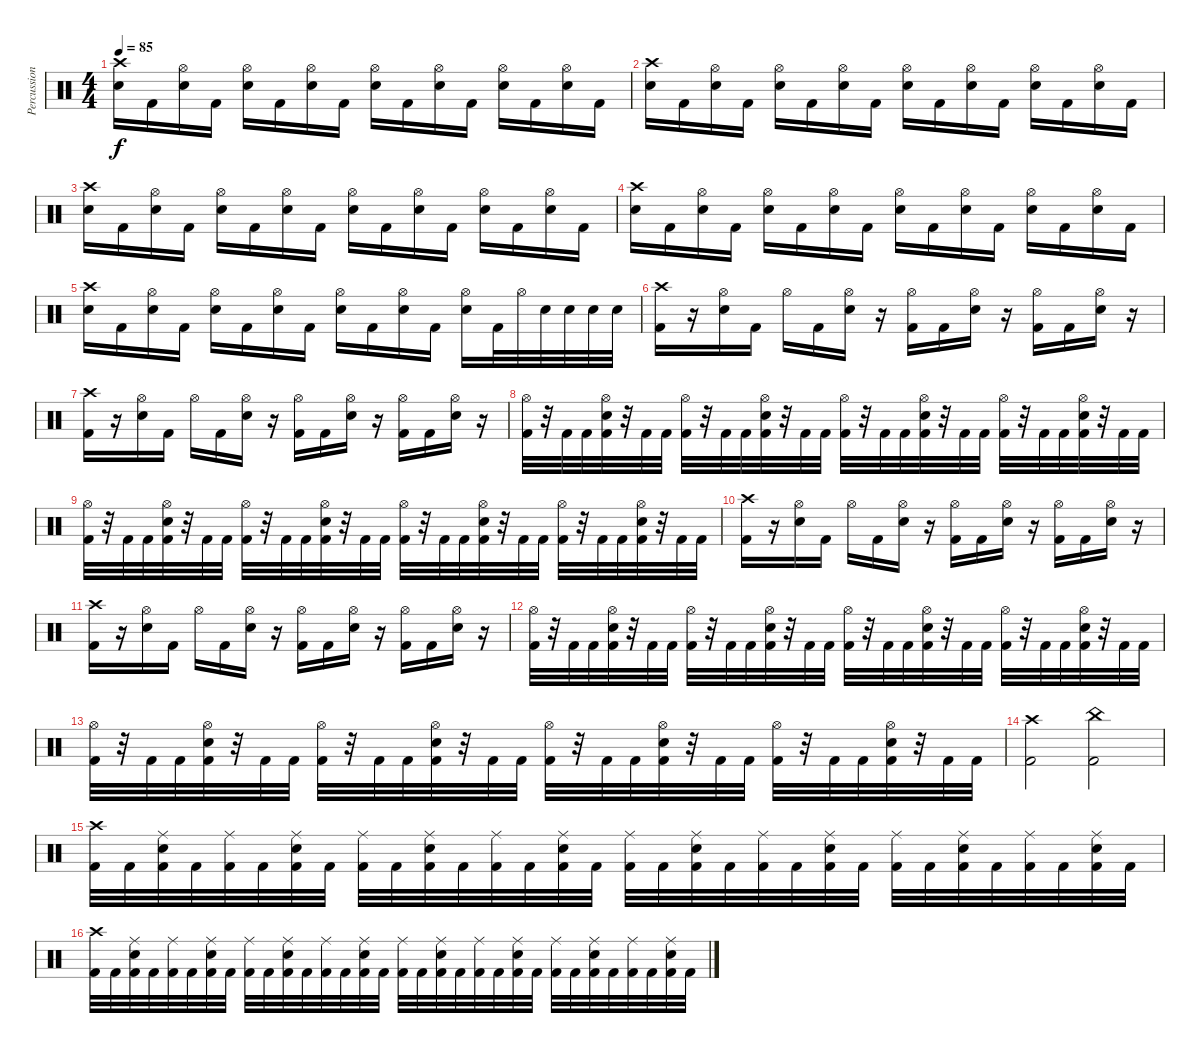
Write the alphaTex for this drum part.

\track ("Percussions" "Percussion") {instrument percussion}
\staff {score}
\articulation defaults
\ts (4 4)
\tempo 85
\clef neutral
\ks c
("Crash high (hit)" "Snare (hit) 2").16{dy f} "Kick (hit) 2".16 ("Hi-Hat (open)" "Snare (hit) 2").16 "Kick (hit) 2".16 ("Hi-Hat (open)" "Snare (hit) 2").16 "Kick (hit) 2".16 ("Hi-Hat (open)" "Snare (hit) 2").16 "Kick (hit) 2".16 ("Hi-Hat (open)" "Snare (hit) 2").16 "Kick (hit) 2".16 ("Hi-Hat (open)" "Snare (hit) 2").16 "Kick (hit) 2".16 ("Hi-Hat (open)" "Snare (hit) 2").16 "Kick (hit) 2".16 ("Hi-Hat (open)" "Snare (hit) 2").16 "Kick (hit) 2".16 |
("Crash high (hit)" "Snare (hit) 2").16 "Kick (hit) 2".16 ("Hi-Hat (open)" "Snare (hit) 2").16 "Kick (hit) 2".16 ("Hi-Hat (open)" "Snare (hit) 2").16 "Kick (hit) 2".16 ("Hi-Hat (open)" "Snare (hit) 2").16 "Kick (hit) 2".16 ("Hi-Hat (open)" "Snare (hit) 2").16 "Kick (hit) 2".16 ("Hi-Hat (open)" "Snare (hit) 2").16 "Kick (hit) 2".16 ("Hi-Hat (open)" "Snare (hit) 2").16 "Kick (hit) 2".16 ("Hi-Hat (open)" "Snare (hit) 2").16 "Kick (hit) 2".16 |
("Crash high (hit)" "Snare (hit) 2").16 "Kick (hit) 2".16 ("Hi-Hat (open)" "Snare (hit) 2").16 "Kick (hit) 2".16 ("Hi-Hat (open)" "Snare (hit) 2").16 "Kick (hit) 2".16 ("Hi-Hat (open)" "Snare (hit) 2").16 "Kick (hit) 2".16 ("Hi-Hat (open)" "Snare (hit) 2").16 "Kick (hit) 2".16 ("Hi-Hat (open)" "Snare (hit) 2").16 "Kick (hit) 2".16 ("Hi-Hat (open)" "Snare (hit) 2").16 "Kick (hit) 2".16 ("Hi-Hat (open)" "Snare (hit) 2").16 "Kick (hit) 2".16 |
("Crash high (hit)" "Snare (hit) 2").16 "Kick (hit) 2".16 ("Hi-Hat (open)" "Snare (hit) 2").16 "Kick (hit) 2".16 ("Hi-Hat (open)" "Snare (hit) 2").16 "Kick (hit) 2".16 ("Hi-Hat (open)" "Snare (hit) 2").16 "Kick (hit) 2".16 ("Hi-Hat (open)" "Snare (hit) 2").16 "Kick (hit) 2".16 ("Hi-Hat (open)" "Snare (hit) 2").16 "Kick (hit) 2".16 ("Hi-Hat (open)" "Snare (hit) 2").16 "Kick (hit) 2".16 ("Hi-Hat (open)" "Snare (hit) 2").16 "Kick (hit) 2".16 |
("Crash high (hit)" "Snare (hit) 2").16 "Kick (hit) 2".16 ("Hi-Hat (open)" "Snare (hit) 2").16 "Kick (hit) 2".16 ("Hi-Hat (open)" "Snare (hit) 2").16 "Kick (hit) 2".16 ("Hi-Hat (open)" "Snare (hit) 2").16 "Kick (hit) 2".16 ("Hi-Hat (open)" "Snare (hit) 2").16 "Kick (hit) 2".16 ("Hi-Hat (open)" "Snare (hit) 2").16 "Kick (hit) 2".16 ("Hi-Hat (open)" "Snare (hit) 2").16 "Kick (hit) 2".32 "Hi-Hat (open)".32 "Snare (hit) 2".32 "Snare (hit) 2".32 "Snare (hit) 2".32 "Snare (hit) 2".32 |
("Crash high (hit)" "Kick (hit) 2").16 r.16 ("Hi-Hat (open)" "Snare (hit) 2").16 "Kick (hit) 2".16 "Hi-Hat (open)".16 "Kick (hit) 2".16 ("Hi-Hat (open)" "Snare (hit) 2").16 r.16 ("Hi-Hat (open)" "Kick (hit) 2").16 "Kick (hit) 2".16 ("Hi-Hat (open)" "Snare (hit) 2").16 r.16 ("Hi-Hat (open)" "Kick (hit) 2").16 "Kick (hit) 2".16 ("Hi-Hat (open)" "Snare (hit) 2").16 r.16 |
("Crash high (hit)" "Kick (hit) 2").16 r.16 ("Hi-Hat (open)" "Snare (hit) 2").16 "Kick (hit) 2".16 "Hi-Hat (open)".16 "Kick (hit) 2".16 ("Hi-Hat (open)" "Snare (hit) 2").16 r.16 ("Hi-Hat (open)" "Kick (hit) 2").16 "Kick (hit) 2".16 ("Hi-Hat (open)" "Snare (hit) 2").16 r.16 ("Hi-Hat (open)" "Kick (hit) 2").16 "Kick (hit) 2".16 ("Hi-Hat (open)" "Snare (hit) 2").16 r.16 |
("Hi-Hat (open)" "Kick (hit) 2").32 r.32 "Kick (hit) 2".32 "Kick (hit) 2".32 ("Hi-Hat (open)" "Snare (hit) 2" "Kick (hit) 2").32 r.32 "Kick (hit) 2".32 "Kick (hit) 2".32 ("Hi-Hat (open)" "Kick (hit) 2").32 r.32 "Kick (hit) 2".32 "Kick (hit) 2".32 ("Hi-Hat (open)" "Snare (hit) 2" "Kick (hit) 2").32 r.32 "Kick (hit) 2".32 "Kick (hit) 2".32 ("Hi-Hat (open)" "Kick (hit) 2").32 r.32 "Kick (hit) 2".32 "Kick (hit) 2".32 ("Hi-Hat (open)" "Snare (hit) 2" "Kick (hit) 2").32 r.32 "Kick (hit) 2".32 "Kick (hit) 2".32 ("Hi-Hat (open)" "Kick (hit) 2").32 r.32 "Kick (hit) 2".32 "Kick (hit) 2".32 ("Hi-Hat (open)" "Snare (hit) 2" "Kick (hit) 2").32 r.32 "Kick (hit) 2".32 "Kick (hit) 2".32 |
("Hi-Hat (open)" "Kick (hit) 2").32 r.32 "Kick (hit) 2".32 "Kick (hit) 2".32 ("Hi-Hat (open)" "Snare (hit) 2" "Kick (hit) 2").32 r.32 "Kick (hit) 2".32 "Kick (hit) 2".32 ("Hi-Hat (open)" "Kick (hit) 2").32 r.32 "Kick (hit) 2".32 "Kick (hit) 2".32 ("Hi-Hat (open)" "Snare (hit) 2" "Kick (hit) 2").32 r.32 "Kick (hit) 2".32 "Kick (hit) 2".32 ("Hi-Hat (open)" "Kick (hit) 2").32 r.32 "Kick (hit) 2".32 "Kick (hit) 2".32 ("Hi-Hat (open)" "Snare (hit) 2" "Kick (hit) 2").32 r.32 "Kick (hit) 2".32 "Kick (hit) 2".32 ("Hi-Hat (open)" "Kick (hit) 2").32 r.32 "Kick (hit) 2".32 "Kick (hit) 2".32 ("Hi-Hat (open)" "Snare (hit) 2" "Kick (hit) 2").32 r.32 "Kick (hit) 2".32 "Kick (hit) 2".32 |
("Crash high (hit)" "Kick (hit) 2").16 r.16 ("Hi-Hat (open)" "Snare (hit) 2").16 "Kick (hit) 2".16 "Hi-Hat (open)".16 "Kick (hit) 2".16 ("Hi-Hat (open)" "Snare (hit) 2").16 r.16 ("Hi-Hat (open)" "Kick (hit) 2").16 "Kick (hit) 2".16 ("Hi-Hat (open)" "Snare (hit) 2").16 r.16 ("Hi-Hat (open)" "Kick (hit) 2").16 "Kick (hit) 2".16 ("Hi-Hat (open)" "Snare (hit) 2").16 r.16 |
("Crash high (hit)" "Kick (hit) 2").16 r.16 ("Hi-Hat (open)" "Snare (hit) 2").16 "Kick (hit) 2".16 "Hi-Hat (open)".16 "Kick (hit) 2".16 ("Hi-Hat (open)" "Snare (hit) 2").16 r.16 ("Hi-Hat (open)" "Kick (hit) 2").16 "Kick (hit) 2".16 ("Hi-Hat (open)" "Snare (hit) 2").16 r.16 ("Hi-Hat (open)" "Kick (hit) 2").16 "Kick (hit) 2".16 ("Hi-Hat (open)" "Snare (hit) 2").16 r.16 |
("Hi-Hat (open)" "Kick (hit) 2").32 r.32 "Kick (hit) 2".32 "Kick (hit) 2".32 ("Hi-Hat (open)" "Snare (hit) 2" "Kick (hit) 2").32 r.32 "Kick (hit) 2".32 "Kick (hit) 2".32 ("Hi-Hat (open)" "Kick (hit) 2").32 r.32 "Kick (hit) 2".32 "Kick (hit) 2".32 ("Hi-Hat (open)" "Snare (hit) 2" "Kick (hit) 2").32 r.32 "Kick (hit) 2".32 "Kick (hit) 2".32 ("Hi-Hat (open)" "Kick (hit) 2").32 r.32 "Kick (hit) 2".32 "Kick (hit) 2".32 ("Hi-Hat (open)" "Snare (hit) 2" "Kick (hit) 2").32 r.32 "Kick (hit) 2".32 "Kick (hit) 2".32 ("Hi-Hat (open)" "Kick (hit) 2").32 r.32 "Kick (hit) 2".32 "Kick (hit) 2".32 ("Hi-Hat (open)" "Snare (hit) 2" "Kick (hit) 2").32 r.32 "Kick (hit) 2".32 "Kick (hit) 2".32 |
("Hi-Hat (open)" "Kick (hit) 2").32 r.32 "Kick (hit) 2".32 "Kick (hit) 2".32 ("Hi-Hat (open)" "Snare (hit) 2" "Kick (hit) 2").32 r.32 "Kick (hit) 2".32 "Kick (hit) 2".32 ("Hi-Hat (open)" "Kick (hit) 2").32 r.32 "Kick (hit) 2".32 "Kick (hit) 2".32 ("Hi-Hat (open)" "Snare (hit) 2" "Kick (hit) 2").32 r.32 "Kick (hit) 2".32 "Kick (hit) 2".32 ("Hi-Hat (open)" "Kick (hit) 2").32 r.32 "Kick (hit) 2".32 "Kick (hit) 2".32 ("Hi-Hat (open)" "Snare (hit) 2" "Kick (hit) 2").32 r.32 "Kick (hit) 2".32 "Kick (hit) 2".32 ("Hi-Hat (open)" "Kick (hit) 2").32 r.32 "Kick (hit) 2".32 "Kick (hit) 2".32 ("Hi-Hat (open)" "Snare (hit) 2" "Kick (hit) 2").32 r.32 "Kick (hit) 2".32 "Kick (hit) 2".32 |
("Crash high (hit)" "Kick (hit) 2").2 ("China (hit)" "Kick (hit) 2").2 |
("Crash high (hit)" "Kick (hit) 2").32 "Kick (hit) 2".32 ("Ride (middle)" "Snare (hit) 2" "Kick (hit) 2").32 "Kick (hit) 2".32 ("Ride (middle)" "Kick (hit) 2").32 "Kick (hit) 2".32 ("Ride (middle)" "Snare (hit) 2" "Kick (hit) 2").32 "Kick (hit) 2".32 ("Ride (middle)" "Kick (hit) 2").32 "Kick (hit) 2".32 ("Ride (middle)" "Snare (hit) 2" "Kick (hit) 2").32 "Kick (hit) 2".32 ("Ride (middle)" "Kick (hit) 2").32 "Kick (hit) 2".32 ("Ride (middle)" "Snare (hit) 2" "Kick (hit) 2").32 "Kick (hit) 2".32 ("Ride (middle)" "Kick (hit) 2").32 "Kick (hit) 2".32 ("Ride (middle)" "Snare (hit) 2" "Kick (hit) 2").32 "Kick (hit) 2".32 ("Ride (middle)" "Kick (hit) 2").32 "Kick (hit) 2".32 ("Ride (middle)" "Snare (hit) 2" "Kick (hit) 2").32 "Kick (hit) 2".32 ("Ride (middle)" "Kick (hit) 2").32 "Kick (hit) 2".32 ("Ride (middle)" "Snare (hit) 2" "Kick (hit) 2").32 "Kick (hit) 2".32 ("Ride (middle)" "Kick (hit) 2").32 "Kick (hit) 2".32 ("Ride (middle)" "Snare (hit) 2" "Kick (hit) 2").32 "Kick (hit) 2".32 |
("Crash high (hit)" "Kick (hit) 2").32 "Kick (hit) 2".32 ("Ride (middle)" "Snare (hit) 2" "Kick (hit) 2").32 "Kick (hit) 2".32 ("Ride (middle)" "Kick (hit) 2").32 "Kick (hit) 2".32 ("Ride (middle)" "Snare (hit) 2" "Kick (hit) 2").32 "Kick (hit) 2".32 ("Ride (middle)" "Kick (hit) 2").32 "Kick (hit) 2".32 ("Ride (middle)" "Snare (hit) 2" "Kick (hit) 2").32 "Kick (hit) 2".32 ("Ride (middle)" "Kick (hit) 2").32 "Kick (hit) 2".32 ("Ride (middle)" "Snare (hit) 2" "Kick (hit) 2").32 "Kick (hit) 2".32 ("Ride (middle)" "Kick (hit) 2").32 "Kick (hit) 2".32 ("Ride (middle)" "Snare (hit) 2" "Kick (hit) 2").32 "Kick (hit) 2".32 ("Ride (middle)" "Kick (hit) 2").32 "Kick (hit) 2".32 ("Ride (middle)" "Snare (hit) 2" "Kick (hit) 2").32 "Kick (hit) 2".32 ("Ride (middle)" "Kick (hit) 2").32 "Kick (hit) 2".32 ("Ride (middle)" "Snare (hit) 2" "Kick (hit) 2").32 "Kick (hit) 2".32 ("Ride (middle)" "Kick (hit) 2").32 "Kick (hit) 2".32 ("Ride (middle)" "Snare (hit) 2" "Kick (hit) 2").32 "Kick (hit) 2".32
